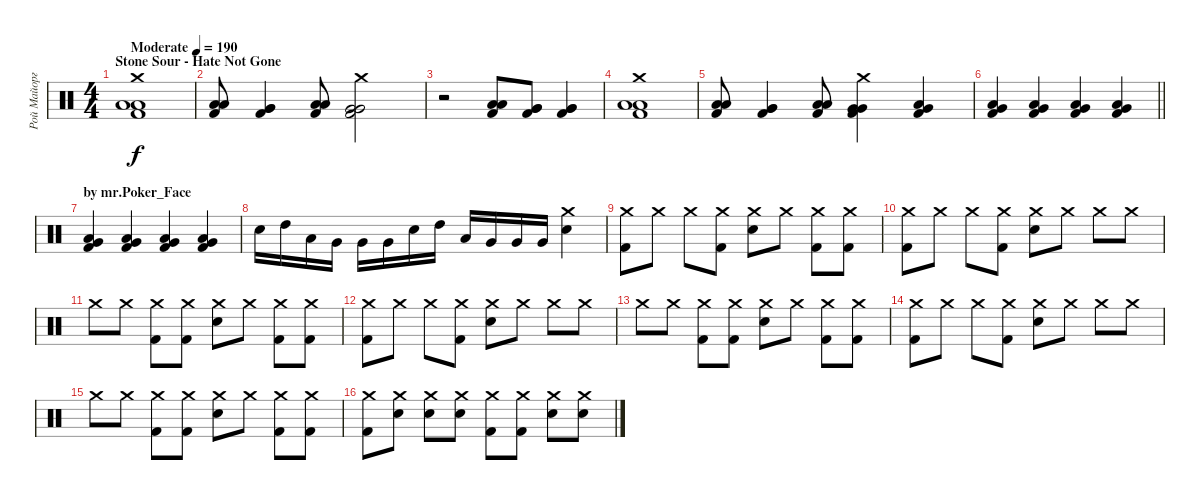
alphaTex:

\track ("Рой Майорга" "Рой Майорг") {instrument percussion}
\staff {score}
\articulation defaults
\ts (4 4)
\section ("" "Stone Sour - Hate Not Gone")
\tempo (190 "Moderate")
\clef neutral
\ks c
("Crash medium (hit)" "Low Floor Tom (hit)" "Low Floor Tom (hit)" "Kick (hit) 2").1{dy f} |
("Low Floor Tom (hit)" "Low Floor Tom (hit)" "Kick (hit) 2").8 ("Very Low Tom (hit)" "Very Low Tom (hit)" "Kick (hit) 2").4 ("Low Floor Tom (hit)" "Low Floor Tom (hit)" "Kick (hit) 2").8 ("Crash medium (hit)" "Very Low Tom (hit)" "Very Low Tom (hit)" "Kick (hit) 2").2 |
r.2 ("Low Floor Tom (hit)" "Low Floor Tom (hit)" "Kick (hit) 2").8 ("Very Low Tom (hit)" "Very Low Tom (hit)" "Kick (hit) 2").8 ("Very Low Tom (hit)" "Very Low Tom (hit)" "Kick (hit) 2").4 |
("Crash medium (hit)" "Low Floor Tom (hit)" "Low Floor Tom (hit)" "Kick (hit) 2").1 |
("Low Floor Tom (hit)" "Low Floor Tom (hit)" "Kick (hit) 2").8 ("Very Low Tom (hit)" "Very Low Tom (hit)" "Kick (hit) 2").4 ("Low Floor Tom (hit)" "Low Floor Tom (hit)" "Kick (hit) 2").8 ("Crash medium (hit)" "Very Low Tom (hit)" "Very Low Tom (hit)" "Kick (hit) 2").4 ("Very Low Tom (hit)" "Low Floor Tom (hit)" "Kick (hit) 2").4 |
\barLineRight lightlight
("Very Low Tom (hit)" "Low Floor Tom (hit)" "Kick (hit) 2").4 ("Very Low Tom (hit)" "Low Floor Tom (hit)" "Kick (hit) 2").4 ("Very Low Tom (hit)" "Low Floor Tom (hit)" "Kick (hit) 2").4 ("Very Low Tom (hit)" "Low Floor Tom (hit)" "Kick (hit) 2").4 |
\section ("" "by mr.Poker_Face")
("Very Low Tom (hit)" "Low Floor Tom (hit)" "Kick (hit) 2").4 ("Very Low Tom (hit)" "Low Floor Tom (hit)" "Kick (hit) 2").4 ("Very Low Tom (hit)" "Low Floor Tom (hit)" "Kick (hit) 2").4 ("Very Low Tom (hit)" "Low Floor Tom (hit)" "Kick (hit) 2").4 |
"Electric Snare (hit)".16 "High Tom (hit)".16 "Low Tom (hit)".16 "Very Low Tom (hit)".16 "Very Low Tom (hit)".16 "Very Low Tom (hit)".16 "Electric Snare (hit)".16 "High Tom (hit)".16 "Low Tom (hit)".16 "Very Low Tom (hit)".16 "Very Low Tom (hit)".16 "Very Low Tom (hit)".16 ("Crash medium (hit)" "Electric Snare (hit)").4 |
("Crash medium (hit)" "Kick (hit) 2").8 "Crash medium (hit)".8 "Crash medium (hit)".8 ("Crash medium (hit)" "Kick (hit) 2").8 ("Crash medium (hit)" "Electric Snare (hit)").8 "Crash medium (hit)".8 ("Crash medium (hit)" "Kick (hit) 2").8 ("Crash medium (hit)" "Kick (hit) 2").8 |
("Crash medium (hit)" "Kick (hit) 2").8 "Crash medium (hit)".8 "Crash medium (hit)".8 ("Crash medium (hit)" "Kick (hit) 2").8 ("Crash medium (hit)" "Electric Snare (hit)").8 "Crash medium (hit)".8 "Crash medium (hit)".8 "Crash medium (hit)".8 |
"Crash medium (hit)".8 "Crash medium (hit)".8 ("Crash medium (hit)" "Kick (hit) 2").8 ("Crash medium (hit)" "Kick (hit) 2").8 ("Crash medium (hit)" "Electric Snare (hit)").8 "Crash medium (hit)".8 ("Crash medium (hit)" "Kick (hit) 2").8 ("Crash medium (hit)" "Kick (hit) 2").8 |
("Crash medium (hit)" "Kick (hit) 2").8 "Crash medium (hit)".8 "Crash medium (hit)".8 ("Crash medium (hit)" "Kick (hit) 2").8 ("Crash medium (hit)" "Electric Snare (hit)").8 "Crash medium (hit)".8 "Crash medium (hit)".8 "Crash medium (hit)".8 |
"Crash medium (hit)".8 "Crash medium (hit)".8 ("Crash medium (hit)" "Kick (hit) 2").8 ("Crash medium (hit)" "Kick (hit) 2").8 ("Crash medium (hit)" "Electric Snare (hit)").8 "Crash medium (hit)".8 ("Crash medium (hit)" "Kick (hit) 2").8 ("Crash medium (hit)" "Kick (hit) 2").8 |
("Crash medium (hit)" "Kick (hit) 2").8 "Crash medium (hit)".8 "Crash medium (hit)".8 ("Crash medium (hit)" "Kick (hit) 2").8 ("Crash medium (hit)" "Electric Snare (hit)").8 "Crash medium (hit)".8 "Crash medium (hit)".8 "Crash medium (hit)".8 |
"Crash medium (hit)".8 "Crash medium (hit)".8 ("Crash medium (hit)" "Kick (hit) 2").8 ("Crash medium (hit)" "Kick (hit) 2").8 ("Crash medium (hit)" "Electric Snare (hit)").8 "Crash medium (hit)".8 ("Crash medium (hit)" "Kick (hit) 2").8 ("Crash medium (hit)" "Kick (hit) 2").8 |
("Crash medium (hit)" "Kick (hit) 2").8 ("Crash medium (hit)" "Electric Snare (hit)").8 ("Crash medium (hit)" "Electric Snare (hit)").8 ("Crash medium (hit)" "Electric Snare (hit)").8 ("Crash medium (hit)" "Kick (hit) 2").8 ("Crash medium (hit)" "Kick (hit) 2").8 ("Crash medium (hit)" "Electric Snare (hit)").8 ("Crash medium (hit)" "Electric Snare (hit)").8
